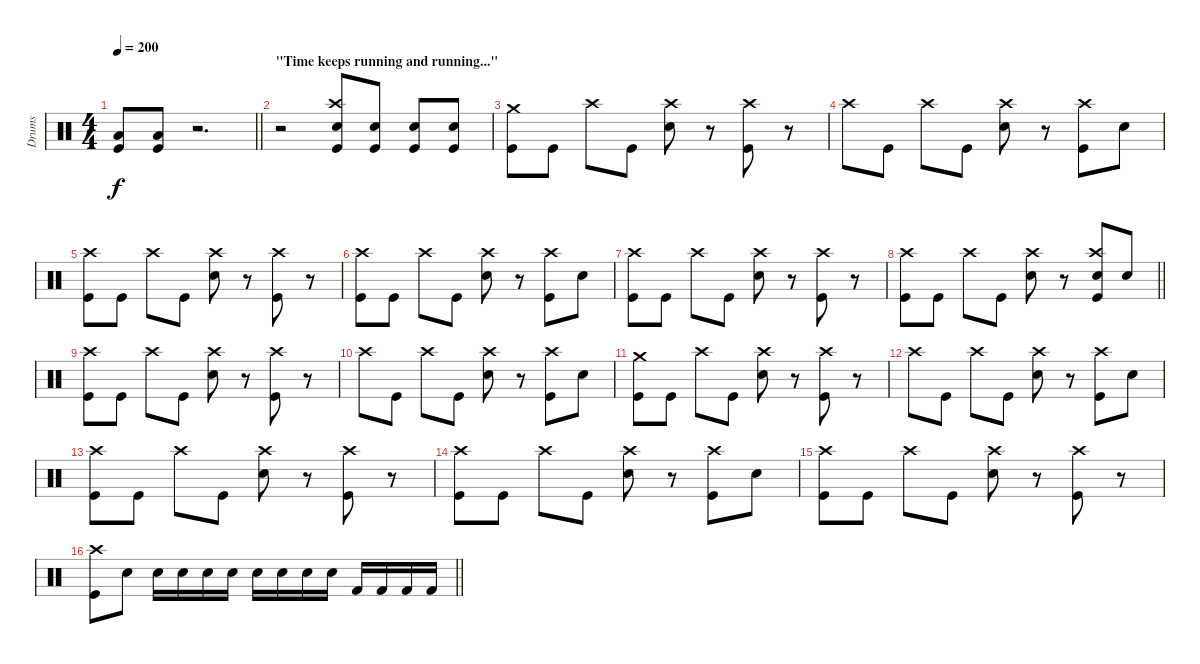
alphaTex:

\track ("Drums" "Drums") {instrument percussion}
\staff {score}
\articulation defaults
\ts (4 4)
\tempo 200
\clef neutral
\barLineRight lightlight
\ks c
("Low Floor Tom (hit)" "Kick (hit)").8{dy f} ("Low Floor Tom (hit)" "Kick (hit)").8 r.2{d} |
\section ("" "\"Time keeps running and running...\"")
r.2 ("Crash high (hit)" "Snare (hit) 2" "Kick (hit)").8 ("Snare (hit) 2" "Kick (hit)").8 ("Snare (hit) 2" "Kick (hit)").8 ("Snare (hit) 2" "Kick (hit)").8 |
("Crash medium (hit)" "Kick (hit)").8 "Kick (hit)".8 "Crash high (hit)".8 "Kick (hit)".8 ("Crash high (hit)" "Snare (hit) 2").8 r.8 ("Crash high (hit)" "Kick (hit)").8 r.8 |
"Crash high (hit)".8 "Kick (hit)".8 "Crash high (hit)".8 "Kick (hit)".8 ("Crash high (hit)" "Snare (hit) 2").8 r.8 ("Crash high (hit)" "Kick (hit)").8 "Snare (hit) 2".8 |
("Crash high (hit)" "Kick (hit)").8 "Kick (hit)".8 "Crash high (hit)".8 "Kick (hit)".8 ("Crash high (hit)" "Snare (hit) 2").8 r.8 ("Crash high (hit)" "Kick (hit)").8 r.8 |
("Crash high (hit)" "Kick (hit)").8 "Kick (hit)".8 "Crash high (hit)".8 "Kick (hit)".8 ("Crash high (hit)" "Snare (hit) 2").8 r.8 ("Crash high (hit)" "Kick (hit)").8 "Snare (hit) 2".8 |
("Crash high (hit)" "Kick (hit)").8 "Kick (hit)".8 "Crash high (hit)".8 "Kick (hit)".8 ("Crash high (hit)" "Snare (hit) 2").8 r.8 ("Crash high (hit)" "Kick (hit)").8 r.8 |
\barLineRight lightlight
("Crash high (hit)" "Kick (hit)").8 "Kick (hit)".8 "Crash high (hit)".8 "Kick (hit)".8 ("Crash high (hit)" "Snare (hit) 2").8 r.8 ("Crash high (hit)" "Snare (hit) 2" "Kick (hit)").8 "Snare (hit) 2".8 |
("Crash high (hit)" "Kick (hit)").8 "Kick (hit)".8 "Crash high (hit)".8 "Kick (hit)".8 ("Crash high (hit)" "Snare (hit) 2").8 r.8 ("Crash high (hit)" "Kick (hit)").8 r.8 |
"Crash high (hit)".8 "Kick (hit)".8 "Crash high (hit)".8 "Kick (hit)".8 ("Crash high (hit)" "Snare (hit) 2").8 r.8 ("Crash high (hit)" "Kick (hit)").8 "Snare (hit) 2".8 |
("Crash medium (hit)" "Kick (hit)").8 "Kick (hit)".8 "Crash high (hit)".8 "Kick (hit)".8 ("Crash high (hit)" "Snare (hit) 2").8 r.8 ("Crash high (hit)" "Kick (hit)").8 r.8 |
"Crash high (hit)".8 "Kick (hit)".8 "Crash high (hit)".8 "Kick (hit)".8 ("Crash high (hit)" "Snare (hit) 2").8 r.8 ("Crash high (hit)" "Kick (hit)").8 "Snare (hit) 2".8 |
("Crash high (hit)" "Kick (hit)").8 "Kick (hit)".8 "Crash high (hit)".8 "Kick (hit)".8 ("Crash high (hit)" "Snare (hit) 2").8 r.8 ("Crash high (hit)" "Kick (hit)").8 r.8 |
("Crash high (hit)" "Kick (hit)").8 "Kick (hit)".8 "Crash high (hit)".8 "Kick (hit)".8 ("Crash high (hit)" "Snare (hit) 2").8 r.8 ("Crash high (hit)" "Kick (hit)").8 "Snare (hit) 2".8 |
("Crash high (hit)" "Kick (hit)").8 "Kick (hit)".8 "Crash high (hit)".8 "Kick (hit)".8 ("Crash high (hit)" "Snare (hit) 2").8 r.8 ("Crash high (hit)" "Kick (hit)").8 r.8 |
\barLineRight lightlight
("Crash high (hit)" "Kick (hit)").8 "Snare (hit) 2".8 "Electric Snare (hit)".16 "Electric Snare (hit)".16 "Electric Snare (hit)".16 "Electric Snare (hit)".16 "Snare (hit) 2".16 "Snare (hit) 2".16 "Snare (hit) 2".16 "Snare (hit) 2".16 "Kick (hit) 2".16 "Kick (hit) 2".16 "Kick (hit) 2".16 "Kick (hit) 2".16
